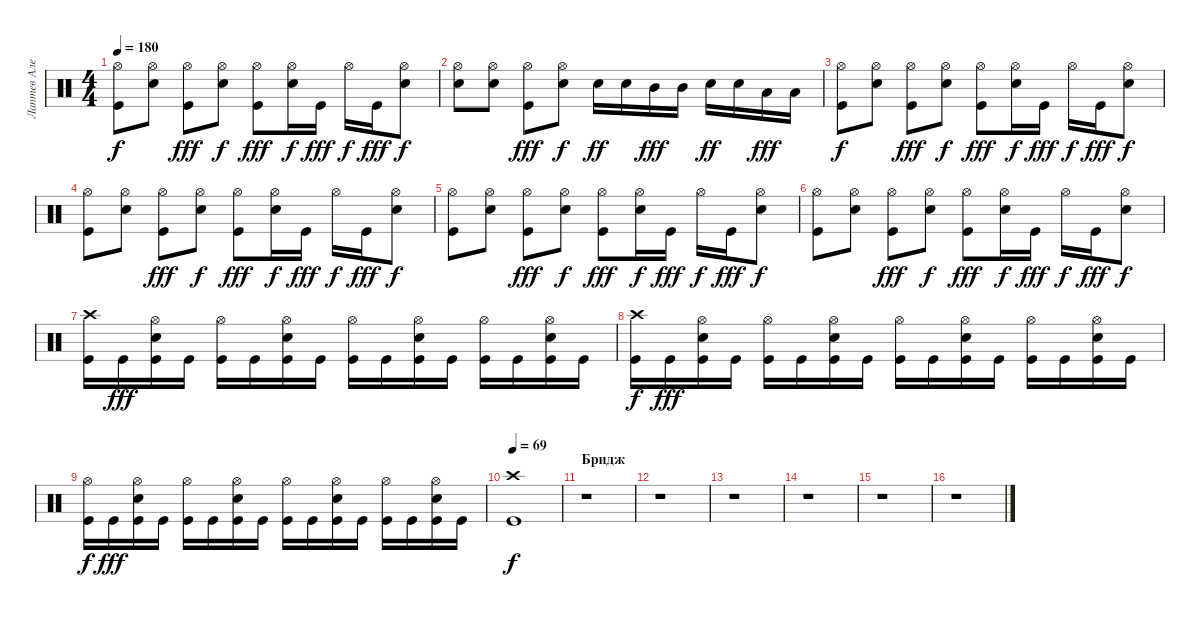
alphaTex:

\track ("Лаптев Алексей" "Лаптев Але") {instrument percussion}
\staff {score}
\articulation defaults
\ts (4 4)
\tempo 180
\clef neutral
\ks c
("Hi-Hat (open)" "Kick (hit)").8{dy f} ("Hi-Hat (open)" "Snare (hit) 2").8 ("Hi-Hat (open)" "Kick (hit)").8{dy fff} ("Hi-Hat (open)" "Snare (hit) 2").8{dy f} ("Hi-Hat (open)" "Kick (hit)").8{dy fff} ("Hi-Hat (open)" "Snare (hit) 2").16{dy f} "Kick (hit)".16{dy fff} "Hi-Hat (open)".16{dy f} "Kick (hit)".16{dy fff} ("Hi-Hat (open)" "Snare (hit) 2").8{dy f} |
("Hi-Hat (open)" "Snare (hit) 2").8 ("Snare (hit) 2" "Hi-Hat (open)").8 ("Hi-Hat (open)" "Kick (hit)").8{dy fff} ("Snare (hit) 2" "Hi-Hat (open)").8{dy f} "Snare (hit) 2".16{dy ff} "Snare (hit) 2".16 "Mid Tom (hit)".16{dy fff} "Mid Tom (hit)".16 "Snare (hit) 2".16{dy ff} "Snare (hit) 2".16 "Low Tom (hit)".16{dy fff} "Low Tom (hit)".16 |
("Hi-Hat (open)" "Kick (hit)").8{dy f} ("Hi-Hat (open)" "Snare (hit) 2").8 ("Hi-Hat (open)" "Kick (hit)").8{dy fff} ("Hi-Hat (open)" "Snare (hit) 2").8{dy f} ("Hi-Hat (open)" "Kick (hit)").8{dy fff} ("Hi-Hat (open)" "Snare (hit) 2").16{dy f} "Kick (hit)".16{dy fff} "Hi-Hat (open)".16{dy f} "Kick (hit)".16{dy fff} ("Hi-Hat (open)" "Snare (hit) 2").8{dy f} |
("Hi-Hat (open)" "Kick (hit)").8 ("Hi-Hat (open)" "Snare (hit) 2").8 ("Hi-Hat (open)" "Kick (hit)").8{dy fff} ("Hi-Hat (open)" "Snare (hit) 2").8{dy f} ("Hi-Hat (open)" "Kick (hit)").8{dy fff} ("Hi-Hat (open)" "Snare (hit) 2").16{dy f} "Kick (hit)".16{dy fff} "Hi-Hat (open)".16{dy f} "Kick (hit)".16{dy fff} ("Hi-Hat (open)" "Snare (hit) 2").8{dy f} |
("Hi-Hat (open)" "Kick (hit)").8 ("Hi-Hat (open)" "Snare (hit) 2").8 ("Hi-Hat (open)" "Kick (hit)").8{dy fff} ("Hi-Hat (open)" "Snare (hit) 2").8{dy f} ("Hi-Hat (open)" "Kick (hit)").8{dy fff} ("Hi-Hat (open)" "Snare (hit) 2").16{dy f} "Kick (hit)".16{dy fff} "Hi-Hat (open)".16{dy f} "Kick (hit)".16{dy fff} ("Hi-Hat (open)" "Snare (hit) 2").8{dy f} |
("Hi-Hat (open)" "Kick (hit)").8 ("Hi-Hat (open)" "Snare (hit) 2").8 ("Hi-Hat (open)" "Kick (hit)").8{dy fff} ("Hi-Hat (open)" "Snare (hit) 2").8{dy f} ("Hi-Hat (open)" "Kick (hit)").8{dy fff} ("Hi-Hat (open)" "Snare (hit) 2").16{dy f} "Kick (hit)".16{dy fff} "Hi-Hat (open)".16{dy f} "Kick (hit)".16{dy fff} ("Hi-Hat (open)" "Snare (hit) 2").8{dy f} |
("Crash high (hit)" "Kick (hit)").16 "Kick (hit)".16{dy fff} ("Hi-Hat (open)" "Snare (hit) 2" "Kick (hit)").16 "Kick (hit)".16 ("Hi-Hat (open)" "Kick (hit)").16 "Kick (hit)".16 ("Hi-Hat (open)" "Snare (hit) 2" "Kick (hit)").16 "Kick (hit)".16 ("Hi-Hat (open)" "Kick (hit)").16 "Kick (hit)".16 ("Hi-Hat (open)" "Snare (hit) 2" "Kick (hit)").16 "Kick (hit)".16 ("Hi-Hat (open)" "Kick (hit)").16 "Kick (hit)".16 ("Hi-Hat (open)" "Snare (hit) 2" "Kick (hit)").16 "Kick (hit)".16 |
("Crash high (hit)" "Kick (hit)").16{dy f} "Kick (hit)".16{dy fff} ("Hi-Hat (open)" "Snare (hit) 2" "Kick (hit)").16 "Kick (hit)".16 ("Hi-Hat (open)" "Kick (hit)").16 "Kick (hit)".16 ("Hi-Hat (open)" "Snare (hit) 2" "Kick (hit)").16 "Kick (hit)".16 ("Hi-Hat (open)" "Kick (hit)").16 "Kick (hit)".16 ("Hi-Hat (open)" "Snare (hit) 2" "Kick (hit)").16 "Kick (hit)".16 ("Hi-Hat (open)" "Kick (hit)").16 "Kick (hit)".16 ("Hi-Hat (open)" "Snare (hit) 2" "Kick (hit)").16 "Kick (hit)".16 |
("Hi-Hat (open)" "Kick (hit)").16{dy f} "Kick (hit)".16{dy fff} ("Hi-Hat (open)" "Snare (hit) 2" "Kick (hit)").16 "Kick (hit)".16 ("Hi-Hat (open)" "Kick (hit)").16 "Kick (hit)".16 ("Hi-Hat (open)" "Snare (hit) 2" "Kick (hit)").16 "Kick (hit)".16 ("Hi-Hat (open)" "Kick (hit)").16 "Kick (hit)".16 ("Hi-Hat (open)" "Snare (hit) 2" "Kick (hit)").16 "Kick (hit)".16 ("Hi-Hat (open)" "Kick (hit)").16 "Kick (hit)".16 ("Hi-Hat (open)" "Snare (hit) 2" "Kick (hit)").16 "Kick (hit)".16 |
\tempo 69
("Crash high (hit)" "Kick (hit)").1{dy f} |
\section ("" "Бридж")
r.1 |
r.1 |
r.1 |
r.1 |
r.1 |
r.1
